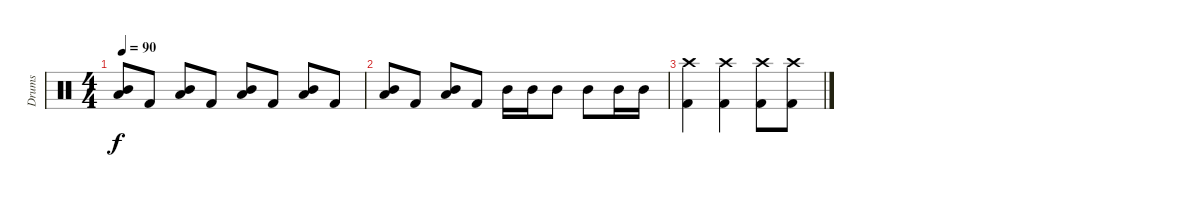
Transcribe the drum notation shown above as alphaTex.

\track ("Drums" "Drums") {instrument percussion}
\staff {score}
\articulation defaults
\ts (4 4)
\tempo 90
\clef neutral
\ks c
("Mid Tom (hit)" "Low Tom (hit)").8{dy f} "Kick (hit) 2".8 ("Mid Tom (hit)" "Low Tom (hit)").8 "Kick (hit) 2".8 ("Mid Tom (hit)" "Low Tom (hit)").8 "Kick (hit) 2".8 ("Mid Tom (hit)" "Low Tom (hit)").8 "Kick (hit) 2".8 |
("Mid Tom (hit)" "Low Tom (hit)").8 "Kick (hit) 2".8 ("Mid Tom (hit)" "Low Tom (hit)").8 "Kick (hit) 2".8 "Mid Tom (hit)".16 "Mid Tom (hit)".16 "Mid Tom (hit)".8 "Mid Tom (hit)".8 "Mid Tom (hit)".16 "Mid Tom (hit)".16 |
("Kick (hit) 2" "Crash high (hit)").4 ("Crash high (hit)" "Kick (hit) 2").4 ("Kick (hit) 2" "Crash high (hit)").8 ("Kick (hit) 2" "Crash high (hit)").8
